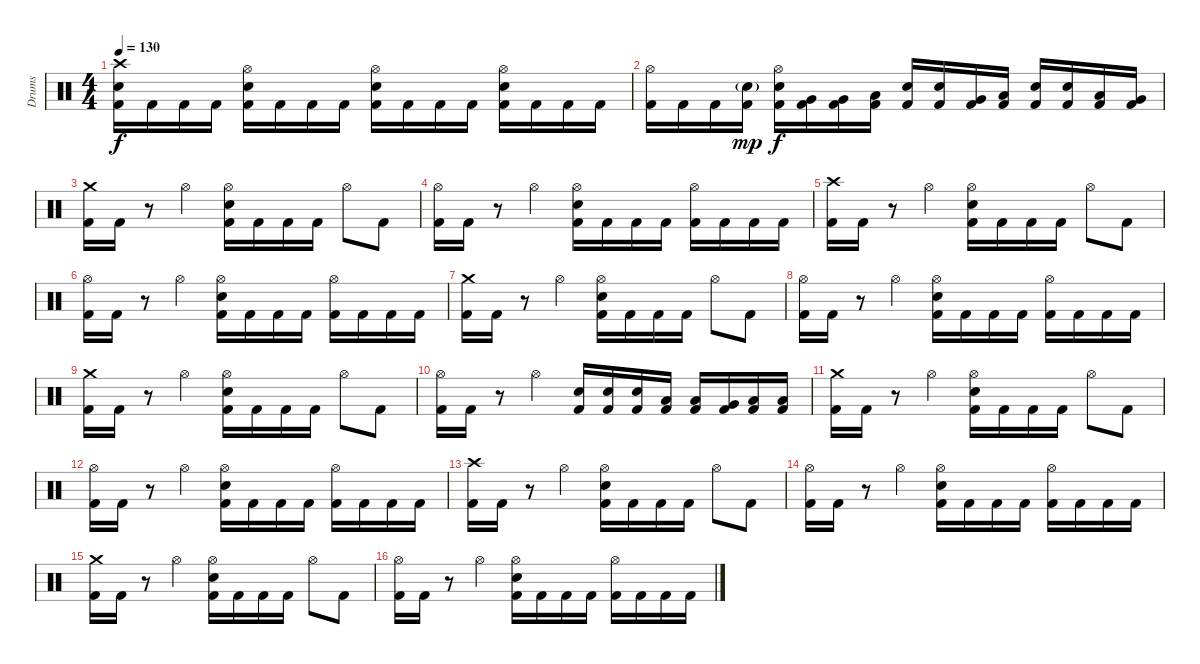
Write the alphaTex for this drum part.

\track ("Drums" "Drums") {instrument percussion}
\staff {score}
\articulation defaults
\ts (4 4)
\tempo 130
\clef neutral
\ks c
("Crash high (hit)" "Electric Snare (hit)" "Kick (hit) 2").16{dy f} "Kick (hit) 2".16 "Kick (hit) 2".16 "Kick (hit) 2".16 ("Hi-Hat (open)" "Electric Snare (hit)" "Kick (hit) 2").16 "Kick (hit) 2".16 "Kick (hit) 2".16 "Kick (hit) 2".16 ("Hi-Hat (open)" "Electric Snare (hit)" "Kick (hit) 2").16 "Kick (hit) 2".16 "Kick (hit) 2".16 "Kick (hit) 2".16 ("Hi-Hat (open)" "Electric Snare (hit)" "Kick (hit) 2").16 "Kick (hit) 2".16 "Kick (hit) 2".16 "Kick (hit) 2".16 |
("Hi-Hat (open)" "Kick (hit) 2").16 "Kick (hit) 2".16 "Kick (hit) 2".16 ("Electric Snare (hit)"{g} "Kick (hit) 2").16{dy mp} ("Hi-Hat (open)" "Electric Snare (hit)" "Kick (hit) 2").16{dy f} ("Very Low Tom (hit)" "Kick (hit) 2").16 ("Very Low Tom (hit)" "Kick (hit) 2").16 ("Low Floor Tom (hit)" "Kick (hit) 2").16 ("Electric Snare (hit)" "Kick (hit) 2").16 ("Electric Snare (hit)" "Kick (hit) 2").16 ("Very Low Tom (hit)" "Kick (hit) 2").16 ("Low Floor Tom (hit)" "Kick (hit) 2").16 ("Electric Snare (hit)" "Kick (hit) 2").16 ("Electric Snare (hit)" "Kick (hit) 2").16 ("Low Tom (hit)" "Kick (hit) 2").16 ("Very Low Tom (hit)" "Kick (hit) 2").16 |
("Crash medium (hit)" "Kick (hit) 2").16 "Kick (hit) 2".16 r.8 "Hi-Hat (open)".4 ("Hi-Hat (open)" "Electric Snare (hit)" "Kick (hit) 2").16 "Kick (hit) 2".16 "Kick (hit) 2".16 "Kick (hit) 2".16 "Hi-Hat (open)".8 "Kick (hit) 2".8 |
("Hi-Hat (open)" "Kick (hit) 2").16 "Kick (hit) 2".16 r.8 "Hi-Hat (open)".4 ("Hi-Hat (open)" "Electric Snare (hit)" "Kick (hit) 2").16 "Kick (hit) 2".16 "Kick (hit) 2".16 "Kick (hit) 2".16 ("Hi-Hat (open)" "Kick (hit) 2").16 "Kick (hit) 2".16 "Kick (hit) 2".16 "Kick (hit) 2".16 |
("Crash high (hit)" "Kick (hit) 2").16 "Kick (hit) 2".16 r.8 "Hi-Hat (open)".4 ("Hi-Hat (open)" "Electric Snare (hit)" "Kick (hit) 2").16 "Kick (hit) 2".16 "Kick (hit) 2".16 "Kick (hit) 2".16 "Hi-Hat (open)".8 "Kick (hit) 2".8 |
("Hi-Hat (open)" "Kick (hit) 2").16 "Kick (hit) 2".16 r.8 "Hi-Hat (open)".4 ("Hi-Hat (open)" "Electric Snare (hit)" "Kick (hit) 2").16 "Kick (hit) 2".16 "Kick (hit) 2".16 "Kick (hit) 2".16 ("Hi-Hat (open)" "Kick (hit) 2").16 "Kick (hit) 2".16 "Kick (hit) 2".16 "Kick (hit) 2".16 |
("Crash medium (hit)" "Kick (hit) 2").16 "Kick (hit) 2".16 r.8 "Hi-Hat (open)".4 ("Hi-Hat (open)" "Electric Snare (hit)" "Kick (hit) 2").16 "Kick (hit) 2".16 "Kick (hit) 2".16 "Kick (hit) 2".16 "Hi-Hat (open)".8 "Kick (hit) 2".8 |
("Hi-Hat (open)" "Kick (hit) 2").16 "Kick (hit) 2".16 r.8 "Hi-Hat (open)".4 ("Hi-Hat (open)" "Electric Snare (hit)" "Kick (hit) 2").16 "Kick (hit) 2".16 "Kick (hit) 2".16 "Kick (hit) 2".16 ("Hi-Hat (open)" "Kick (hit) 2").16 "Kick (hit) 2".16 "Kick (hit) 2".16 "Kick (hit) 2".16 |
("Crash medium (hit)" "Kick (hit) 2").16 "Kick (hit) 2".16 r.8 "Hi-Hat (open)".4 ("Hi-Hat (open)" "Electric Snare (hit)" "Kick (hit) 2").16 "Kick (hit) 2".16 "Kick (hit) 2".16 "Kick (hit) 2".16 "Hi-Hat (open)".8 "Kick (hit) 2".8 |
("Hi-Hat (open)" "Kick (hit) 2").16 "Kick (hit) 2".16 r.8 "Hi-Hat (open)".4 ("Electric Snare (hit)" "Kick (hit) 2").16 ("Electric Snare (hit)" "Kick (hit) 2").16 ("Electric Snare (hit)" "Kick (hit) 2").16 ("Low Tom (hit)" "Kick (hit) 2").16 ("Low Tom (hit)" "Kick (hit) 2").16 ("Very Low Tom (hit)" "Kick (hit) 2").16 ("Low Floor Tom (hit)" "Kick (hit) 2").16 ("Low Floor Tom (hit)" "Kick (hit) 2").16 |
("Crash medium (hit)" "Kick (hit) 2").16 "Kick (hit) 2".16 r.8 "Hi-Hat (open)".4 ("Hi-Hat (open)" "Electric Snare (hit)" "Kick (hit) 2").16 "Kick (hit) 2".16 "Kick (hit) 2".16 "Kick (hit) 2".16 "Hi-Hat (open)".8 "Kick (hit) 2".8 |
("Hi-Hat (open)" "Kick (hit) 2").16 "Kick (hit) 2".16 r.8 "Hi-Hat (open)".4 ("Hi-Hat (open)" "Electric Snare (hit)" "Kick (hit) 2").16 "Kick (hit) 2".16 "Kick (hit) 2".16 "Kick (hit) 2".16 ("Hi-Hat (open)" "Kick (hit) 2").16 "Kick (hit) 2".16 "Kick (hit) 2".16 "Kick (hit) 2".16 |
("Crash high (hit)" "Kick (hit) 2").16 "Kick (hit) 2".16 r.8 "Hi-Hat (open)".4 ("Hi-Hat (open)" "Electric Snare (hit)" "Kick (hit) 2").16 "Kick (hit) 2".16 "Kick (hit) 2".16 "Kick (hit) 2".16 "Hi-Hat (open)".8 "Kick (hit) 2".8 |
("Hi-Hat (open)" "Kick (hit) 2").16 "Kick (hit) 2".16 r.8 "Hi-Hat (open)".4 ("Hi-Hat (open)" "Electric Snare (hit)" "Kick (hit) 2").16 "Kick (hit) 2".16 "Kick (hit) 2".16 "Kick (hit) 2".16 ("Hi-Hat (open)" "Kick (hit) 2").16 "Kick (hit) 2".16 "Kick (hit) 2".16 "Kick (hit) 2".16 |
("Crash medium (hit)" "Kick (hit) 2").16 "Kick (hit) 2".16 r.8 "Hi-Hat (open)".4 ("Hi-Hat (open)" "Electric Snare (hit)" "Kick (hit) 2").16 "Kick (hit) 2".16 "Kick (hit) 2".16 "Kick (hit) 2".16 "Hi-Hat (open)".8 "Kick (hit) 2".8 |
("Hi-Hat (open)" "Kick (hit) 2").16 "Kick (hit) 2".16 r.8 "Hi-Hat (open)".4 ("Hi-Hat (open)" "Electric Snare (hit)" "Kick (hit) 2").16 "Kick (hit) 2".16 "Kick (hit) 2".16 "Kick (hit) 2".16 ("Hi-Hat (open)" "Kick (hit) 2").16 "Kick (hit) 2".16 "Kick (hit) 2".16 "Kick (hit) 2".16
